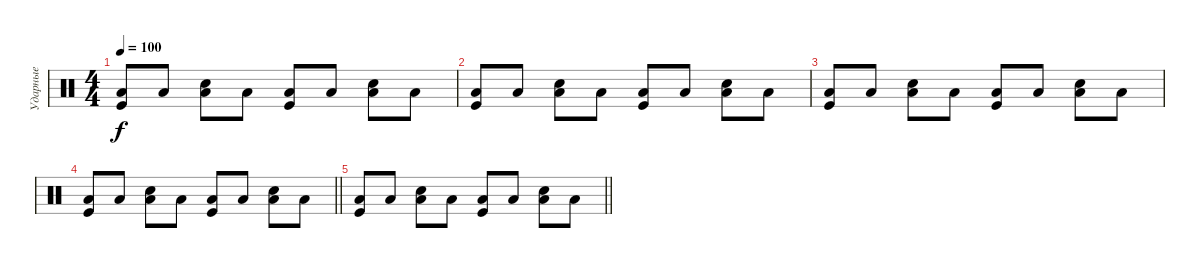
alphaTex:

\track ("Ударные" "Ударные") {instrument percussion}
\staff {score}
\articulation defaults
\ts (4 4)
\tempo 100
\clef neutral
\ks c
("Low Tom (hit)" "Kick (hit)").8{dy f} "Low Tom (hit)".8 ("Snare (hit) 2" "Low Tom (hit)").8 "Low Tom (hit)".8 ("Low Tom (hit)" "Kick (hit)").8 "Low Tom (hit)".8 ("Snare (hit) 2" "Low Tom (hit)").8 "Low Tom (hit)".8 |
("Low Tom (hit)" "Kick (hit)").8 "Low Tom (hit)".8 ("Snare (hit) 2" "Low Tom (hit)").8 "Low Tom (hit)".8 ("Low Tom (hit)" "Kick (hit)").8 "Low Tom (hit)".8 ("Snare (hit) 2" "Low Tom (hit)").8 "Low Tom (hit)".8 |
("Low Tom (hit)" "Kick (hit)").8 "Low Tom (hit)".8 ("Snare (hit) 2" "Low Tom (hit)").8 "Low Tom (hit)".8 ("Low Tom (hit)" "Kick (hit)").8 "Low Tom (hit)".8 ("Snare (hit) 2" "Low Tom (hit)").8 "Low Tom (hit)".8 |
\barLineRight lightlight
("Low Tom (hit)" "Kick (hit)").8 "Low Tom (hit)".8 ("Snare (hit) 2" "Low Tom (hit)").8 "Low Tom (hit)".8 ("Low Tom (hit)" "Kick (hit)").8 "Low Tom (hit)".8 ("Snare (hit) 2" "Low Tom (hit)").8 "Low Tom (hit)".8 |
\barLineRight lightlight
("Low Tom (hit)" "Kick (hit)").8 "Low Tom (hit)".8 ("Snare (hit) 2" "Low Tom (hit)").8 "Low Tom (hit)".8 ("Low Tom (hit)" "Kick (hit)").8 "Low Tom (hit)".8 ("Snare (hit) 2" "Low Tom (hit)").8 "Low Tom (hit)".8
